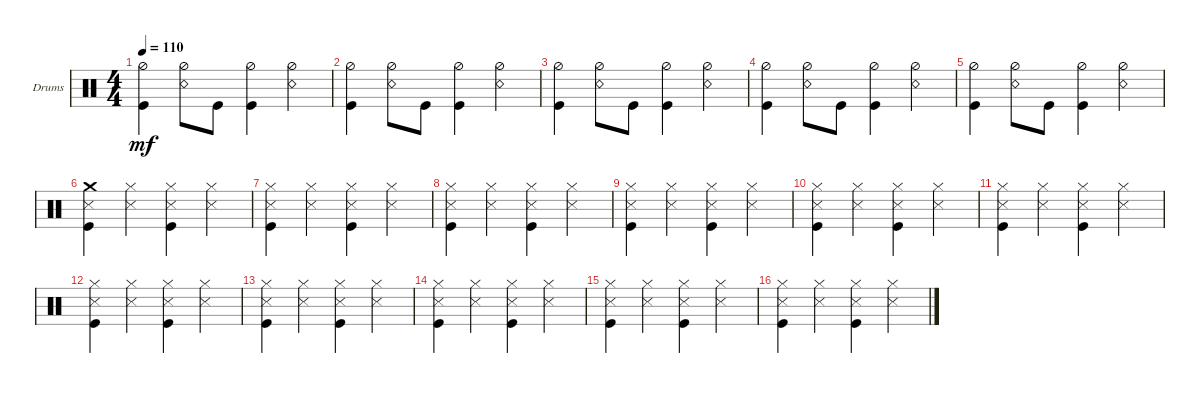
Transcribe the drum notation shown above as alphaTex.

\bracketExtendMode groupsimilarinstruments
\firstSystemTrackNameOrientation horizontal
\otherSystemsTrackNameOrientation horizontal
\track ("Drumkit" "Drums") {instrument percussion}
\staff {score}
\articulation defaults
\ts (4 4)
\tempo 110
\clef neutral
\ks c
("Kick (hit)" "Hi-Hat (half)").4{dy mf} ("Snare (rim shot)" "Hi-Hat (half)").8 "Kick (hit)".8 ("Kick (hit)" "Hi-Hat (half)").4 ("Snare (rim shot)" "Hi-Hat (half)").4 |
("Kick (hit)" "Hi-Hat (half)").4 ("Snare (rim shot)" "Hi-Hat (half)").8 "Kick (hit)".8 ("Kick (hit)" "Hi-Hat (half)").4 ("Snare (rim shot)" "Hi-Hat (half)").4 |
("Kick (hit)" "Hi-Hat (half)").4 ("Snare (rim shot)" "Hi-Hat (half)").8 "Kick (hit)".8 ("Kick (hit)" "Hi-Hat (half)").4 ("Snare (rim shot)" "Hi-Hat (half)").4 |
("Kick (hit)" "Hi-Hat (half)").4 ("Snare (rim shot)" "Hi-Hat (half)").8 "Kick (hit)".8 ("Kick (hit)" "Hi-Hat (half)").4 ("Snare (rim shot)" "Hi-Hat (half)").4 |
("Kick (hit)" "Hi-Hat (half)").4 ("Snare (rim shot)" "Hi-Hat (half)").8 "Kick (hit)".8 ("Kick (hit)" "Hi-Hat (half)").4 ("Snare (rim shot)" "Hi-Hat (half)").4 |
("Kick (hit)" "Snare (side stick) 3" "Crash medium (hit)").4 ("Snare (side stick) 3" "Hi-Hat (closed)").4 ("Kick (hit)" "Hi-Hat (closed)" "Snare (side stick) 3").4 ("Snare (side stick) 3" "Hi-Hat (closed)").4 |
("Kick (hit)" "Hi-Hat (closed)" "Snare (side stick) 3").4 ("Snare (side stick) 3" "Hi-Hat (closed)").4 ("Kick (hit)" "Hi-Hat (closed)" "Snare (side stick) 3").4 ("Snare (side stick) 3" "Hi-Hat (closed)").4 |
("Kick (hit)" "Hi-Hat (closed)" "Snare (side stick) 3").4 ("Snare (side stick) 3" "Hi-Hat (closed)").4 ("Kick (hit)" "Hi-Hat (closed)" "Snare (side stick) 3").4 ("Snare (side stick) 3" "Hi-Hat (closed)").4 |
("Kick (hit)" "Hi-Hat (closed)" "Snare (side stick) 3").4 ("Snare (side stick) 3" "Hi-Hat (closed)").4 ("Kick (hit)" "Hi-Hat (closed)" "Snare (side stick) 3").4 ("Snare (side stick) 3" "Hi-Hat (closed)").4 |
("Kick (hit)" "Hi-Hat (closed)" "Snare (side stick) 3").4 ("Snare (side stick) 3" "Hi-Hat (closed)").4 ("Kick (hit)" "Hi-Hat (closed)" "Snare (side stick) 3").4 ("Snare (side stick) 3" "Hi-Hat (closed)").4 |
("Kick (hit)" "Hi-Hat (closed)" "Snare (side stick) 3").4 ("Snare (side stick) 3" "Hi-Hat (closed)").4 ("Kick (hit)" "Hi-Hat (closed)" "Snare (side stick) 3").4 ("Snare (side stick) 3" "Hi-Hat (closed)").4 |
("Kick (hit)" "Hi-Hat (closed)" "Snare (side stick) 3").4 ("Snare (side stick) 3" "Hi-Hat (closed)").4 ("Kick (hit)" "Hi-Hat (closed)" "Snare (side stick) 3").4 ("Snare (side stick) 3" "Hi-Hat (closed)").4 |
("Kick (hit)" "Hi-Hat (closed)" "Snare (side stick) 3").4 ("Snare (side stick) 3" "Hi-Hat (closed)").4 ("Kick (hit)" "Hi-Hat (closed)" "Snare (side stick) 3").4 ("Snare (side stick) 3" "Hi-Hat (closed)").4 |
("Kick (hit)" "Hi-Hat (closed)" "Snare (side stick) 3").4 ("Snare (side stick) 3" "Hi-Hat (closed)").4 ("Kick (hit)" "Hi-Hat (closed)" "Snare (side stick) 3").4 ("Snare (side stick) 3" "Hi-Hat (closed)").4 |
("Kick (hit)" "Hi-Hat (closed)" "Snare (side stick) 3").4 ("Snare (side stick) 3" "Hi-Hat (closed)").4 ("Kick (hit)" "Hi-Hat (closed)" "Snare (side stick) 3").4 ("Snare (side stick) 3" "Hi-Hat (closed)").4 |
("Kick (hit)" "Hi-Hat (closed)" "Snare (side stick) 3").4 ("Snare (side stick) 3" "Hi-Hat (closed)").4 ("Kick (hit)" "Hi-Hat (closed)" "Snare (side stick) 3").4 ("Snare (side stick) 3" "Hi-Hat (closed)").4
